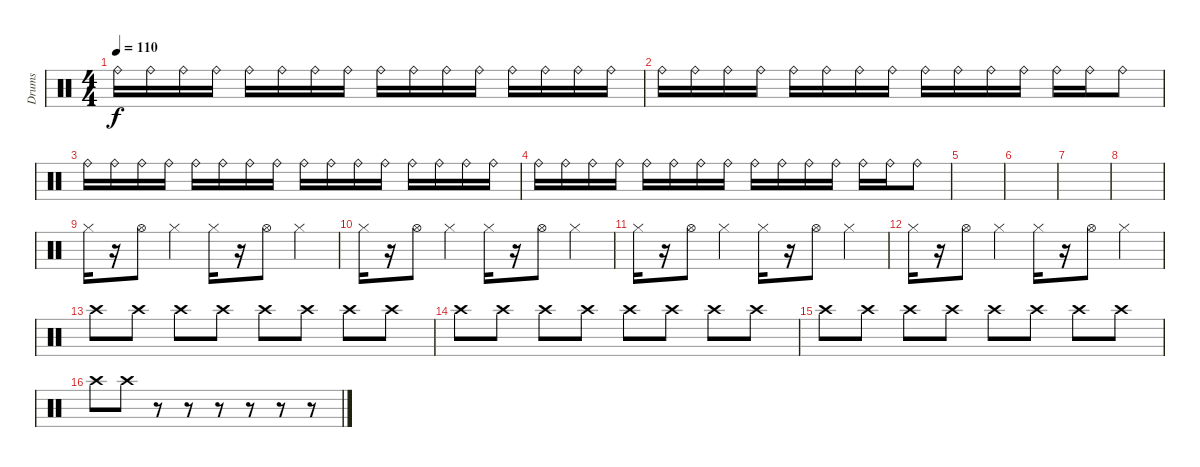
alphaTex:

\track ("Drums" "Drums") {instrument percussion}
\staff {score}
\articulation defaults
\ts (4 4)
\tempo 110
\clef neutral
\ks c "Ride (bell)".16{dy f} "Ride (bell)".16 "Ride (bell)".16 "Ride (bell)".16 "Ride (bell)".16 "Ride (bell)".16 "Ride (bell)".16 "Ride (bell)".16 "Ride (bell)".16 "Ride (bell)".16 "Ride (bell)".16 "Ride (bell)".16 "Ride (bell)".16 "Ride (bell)".16 "Ride (bell)".16 "Ride (bell)".16
|
"Ride (bell)".16 "Ride (bell)".16 "Ride (bell)".16 "Ride (bell)".16 "Ride (bell)".16 "Ride (bell)".16 "Ride (bell)".16 "Ride (bell)".16 "Ride (bell)".16 "Ride (bell)".16 "Ride (bell)".16 "Ride (bell)".16 "Ride (bell)".16 "Ride (bell)".16 "Ride (bell)".8 |
"Ride (bell)".16 "Ride (bell)".16 "Ride (bell)".16 "Ride (bell)".16 "Ride (bell)".16 "Ride (bell)".16 "Ride (bell)".16 "Ride (bell)".16 "Ride (bell)".16 "Ride (bell)".16 "Ride (bell)".16 "Ride (bell)".16 "Ride (bell)".16 "Ride (bell)".16 "Ride (bell)".16 "Ride (bell)".16 |
"Ride (bell)".16 "Ride (bell)".16 "Ride (bell)".16 "Ride (bell)".16 "Ride (bell)".16 "Ride (bell)".16 "Ride (bell)".16 "Ride (bell)".16 "Ride (bell)".16 "Ride (bell)".16 "Ride (bell)".16 "Ride (bell)".16 "Ride (bell)".16 "Ride (bell)".16 "Ride (bell)".8 |
|
|
|
|
"Hi-Hat (closed)".16 r.16 "Hi-Hat (open)".8 "Hi-Hat (closed)".4 "Hi-Hat (closed)".16 r.16 "Hi-Hat (open)".8 "Hi-Hat (closed)".4 |
"Hi-Hat (closed)".16 r.16 "Hi-Hat (open)".8 "Hi-Hat (closed)".4 "Hi-Hat (closed)".16 r.16 "Hi-Hat (open)".8 "Hi-Hat (closed)".4 |
"Hi-Hat (closed)".16 r.16 "Hi-Hat (open)".8 "Hi-Hat (closed)".4 "Hi-Hat (closed)".16 r.16 "Hi-Hat (open)".8 "Hi-Hat (closed)".4 |
"Hi-Hat (closed)".16 r.16 "Hi-Hat (open)".8 "Hi-Hat (closed)".4 "Hi-Hat (closed)".16 r.16 "Hi-Hat (open)".8 "Hi-Hat (closed)".4 |
"Crash high (hit)".8 "Crash high (hit)".8 "Crash high (hit)".8 "Crash high (hit)".8 "Crash high (hit)".8 "Crash high (hit)".8 "Crash high (hit)".8 "Crash high (hit)".8 |
"Crash high (hit)".8 "Crash high (hit)".8 "Crash high (hit)".8 "Crash high (hit)".8 "Crash high (hit)".8 "Crash high (hit)".8 "Crash high (hit)".8 "Crash high (hit)".8 |
"Crash high (hit)".8 "Crash high (hit)".8 "Crash high (hit)".8 "Crash high (hit)".8 "Crash high (hit)".8 "Crash high (hit)".8 "Crash high (hit)".8 "Crash high (hit)".8 |
"Crash high (hit)".8 "Crash high (hit)".8 r.8 r.8 r.8 r.8 r.8 r.8
